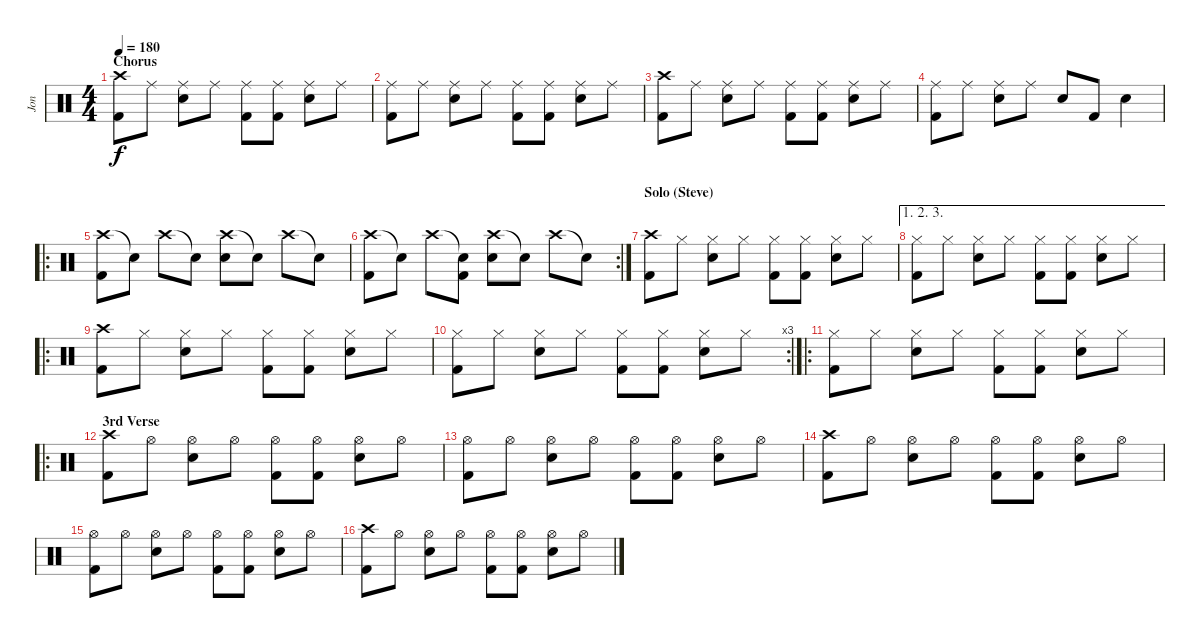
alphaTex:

\track ("Jon" "Jon") {instrument percussion}
\staff {score}
\articulation defaults
\ts (4 4)
\section ("" "Chorus")
\tempo 180
\clef neutral
\ks c
("Crash high (hit)" "Kick (hit) 2").8{dy f} "Ride (middle)".8 ("Ride (middle)" "Snare (hit) 2").8 "Ride (middle)".8 ("Ride (middle)" "Kick (hit) 2").8 ("Ride (middle)" "Kick (hit) 2").8 ("Ride (middle)" "Snare (hit) 2").8 "Ride (middle)".8 |
("Ride (middle)" "Kick (hit) 2").8 "Ride (middle)".8 ("Ride (middle)" "Snare (hit) 2").8 "Ride (middle)".8 ("Ride (middle)" "Kick (hit) 2").8 ("Ride (middle)" "Kick (hit) 2").8 ("Ride (middle)" "Snare (hit) 2").8 "Ride (middle)".8 |
("Crash high (hit)" "Kick (hit) 2").8 "Ride (middle)".8 ("Ride (middle)" "Snare (hit) 2").8 "Ride (middle)".8 ("Ride (middle)" "Kick (hit) 2").8 ("Ride (middle)" "Kick (hit) 2").8 ("Ride (middle)" "Snare (hit) 2").8 "Ride (middle)".8 |
("Ride (middle)" "Kick (hit) 2").8 "Ride (middle)".8 ("Ride (middle)" "Snare (hit) 2").8 "Ride (middle)".8 "Snare (hit) 2".8 "Kick (hit) 2".8 "Snare (hit) 2".4 |
\ro
("Crash high (hit)" "Kick (hit) 2").8 "Snare (hit)"{t}.8 "Crash high (hit)".8 "Snare (hit)"{t}.8 ("Crash high (hit)" "Snare (hit) 2").8 "Snare (hit)"{t}.8 "Crash high (hit)".8 "Snare (hit)"{t}.8 |
\rc 2
("Crash high (hit)" "Kick (hit) 2").8 "Snare (hit)"{t}.8 "Crash high (hit)".8 ("Snare (hit)"{t} "Kick (hit) 2").8 ("Crash high (hit)" "Snare (hit) 2").8 "Snare (hit)"{t}.8 "Crash high (hit)".8 "Snare (hit)"{t}.8 |
\section ("" "Solo (Steve)")
("Crash high (hit)" "Kick (hit) 2").8 "Hi-Hat (closed)".8 ("Hi-Hat (closed)" "Snare (hit) 2").8 "Hi-Hat (closed)".8 ("Hi-Hat (closed)" "Kick (hit) 2").8 ("Hi-Hat (closed)" "Kick (hit) 2").8 ("Hi-Hat (closed)" "Snare (hit) 2").8 "Hi-Hat (closed)".8 |
\ae (1 2 3)
("Hi-Hat (closed)" "Kick (hit) 2").8 "Hi-Hat (closed)".8 ("Hi-Hat (closed)" "Snare (hit) 2").8 "Hi-Hat (closed)".8 ("Hi-Hat (closed)" "Kick (hit) 2").8 ("Hi-Hat (closed)" "Kick (hit) 2").8 ("Hi-Hat (closed)" "Snare (hit) 2").8 "Hi-Hat (closed)".8 |
\ro
("Crash high (hit)" "Kick (hit) 2").8 "Hi-Hat (closed)".8 ("Hi-Hat (closed)" "Snare (hit) 2").8 "Hi-Hat (closed)".8 ("Hi-Hat (closed)" "Kick (hit) 2").8 ("Hi-Hat (closed)" "Kick (hit) 2").8 ("Hi-Hat (closed)" "Snare (hit) 2").8 "Hi-Hat (closed)".8 |
\rc 3
("Hi-Hat (closed)" "Kick (hit) 2").8 "Hi-Hat (closed)".8 ("Hi-Hat (closed)" "Snare (hit) 2").8 "Hi-Hat (closed)".8 ("Hi-Hat (closed)" "Kick (hit) 2").8 ("Hi-Hat (closed)" "Kick (hit) 2").8 ("Hi-Hat (closed)" "Snare (hit) 2").8 "Hi-Hat (closed)".8 |
\ro
("Hi-Hat (closed)" "Kick (hit) 2").8 "Hi-Hat (closed)".8 ("Hi-Hat (closed)" "Snare (hit) 2").8 "Hi-Hat (closed)".8 ("Hi-Hat (closed)" "Kick (hit) 2").8 ("Hi-Hat (closed)" "Kick (hit) 2").8 ("Hi-Hat (closed)" "Snare (hit) 2").8 "Hi-Hat (closed)".8 |
\ro
\section ("" "3rd Verse")
("Crash high (hit)" "Kick (hit) 2").8 "Hi-Hat (open)".8 ("Hi-Hat (open)" "Snare (hit) 2").8 "Hi-Hat (open)".8 ("Hi-Hat (open)" "Kick (hit) 2").8 ("Hi-Hat (open)" "Kick (hit) 2").8 ("Hi-Hat (open)" "Snare (hit) 2").8 "Hi-Hat (open)".8 |
("Hi-Hat (open)" "Kick (hit) 2").8 "Hi-Hat (open)".8 ("Hi-Hat (open)" "Snare (hit) 2").8 "Hi-Hat (open)".8 ("Hi-Hat (open)" "Kick (hit) 2").8 ("Hi-Hat (open)" "Kick (hit) 2").8 ("Hi-Hat (open)" "Snare (hit) 2").8 "Hi-Hat (open)".8 |
("Crash high (hit)" "Kick (hit) 2").8 "Hi-Hat (open)".8 ("Hi-Hat (open)" "Snare (hit) 2").8 "Hi-Hat (open)".8 ("Hi-Hat (open)" "Kick (hit) 2").8 ("Hi-Hat (open)" "Kick (hit) 2").8 ("Hi-Hat (open)" "Snare (hit) 2").8 "Hi-Hat (open)".8 |
("Hi-Hat (open)" "Kick (hit) 2").8 "Hi-Hat (open)".8 ("Hi-Hat (open)" "Snare (hit) 2").8 "Hi-Hat (open)".8 ("Hi-Hat (open)" "Kick (hit) 2").8 ("Hi-Hat (open)" "Kick (hit) 2").8 ("Hi-Hat (open)" "Snare (hit) 2").8 "Hi-Hat (open)".8 |
("Crash high (hit)" "Kick (hit) 2").8 "Hi-Hat (open)".8 ("Hi-Hat (open)" "Snare (hit) 2").8 "Hi-Hat (open)".8 ("Hi-Hat (open)" "Kick (hit) 2").8 ("Hi-Hat (open)" "Kick (hit) 2").8 ("Hi-Hat (open)" "Snare (hit) 2").8 "Hi-Hat (open)".8
